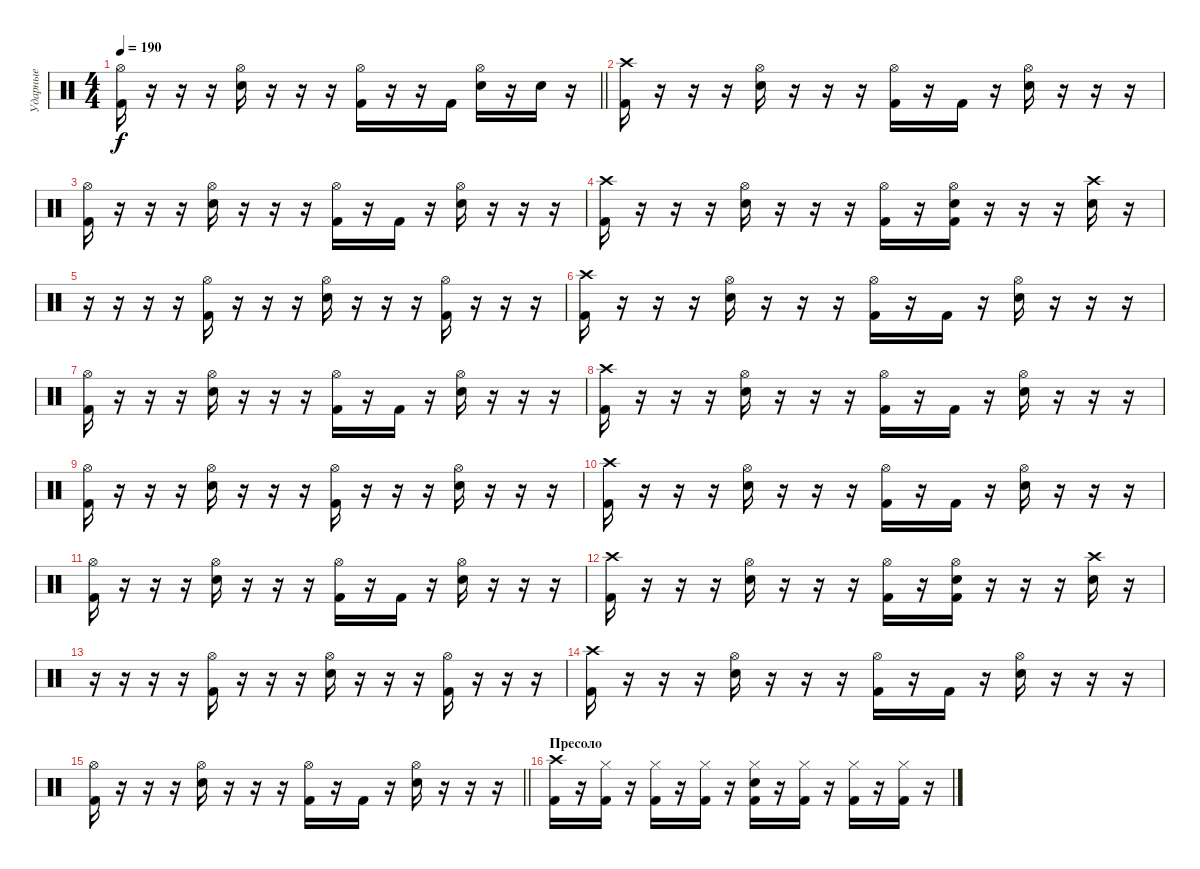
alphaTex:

\track ("Ударные" "Ударные") {instrument percussion}
\staff {score}
\articulation defaults
\ts (4 4)
\tempo 190
\clef neutral
\barLineRight lightlight
\ks c
("Hi-Hat (open)" "Kick (hit) 2").16{dy f} r.16 r.16 r.16 ("Hi-Hat (open)" "Electric Snare (hit)").16 r.16 r.16 r.16 ("Hi-Hat (open)" "Kick (hit) 2").16 r.16 r.16 "Kick (hit) 2".16 ("Hi-Hat (open)" "Electric Snare (hit)").16 r.16 "Snare (hit) 2".16 r.16 |
("Crash high (hit)" "Kick (hit) 2").16 r.16 r.16 r.16 ("Electric Snare (hit)" "Hi-Hat (open)").16 r.16 r.16 r.16 ("Kick (hit) 2" "Hi-Hat (open)").16 r.16 "Kick (hit) 2".16 r.16 ("Electric Snare (hit)" "Hi-Hat (open)").16 r.16 r.16 r.16 |
("Hi-Hat (open)" "Kick (hit) 2").16 r.16 r.16 r.16 ("Electric Snare (hit)" "Hi-Hat (open)").16 r.16 r.16 r.16 ("Kick (hit) 2" "Hi-Hat (open)").16 r.16 "Kick (hit) 2".16 r.16 ("Electric Snare (hit)" "Hi-Hat (open)").16 r.16 r.16 r.16 |
("Crash high (hit)" "Kick (hit) 2").16 r.16 r.16 r.16 ("Electric Snare (hit)" "Hi-Hat (open)").16 r.16 r.16 r.16 ("Kick (hit) 2" "Hi-Hat (open)").16 r.16 ("Kick (hit) 2" "Hi-Hat (open)" "Electric Snare (hit)").16 r.16 r.16 r.16 ("Crash high (hit)" "Electric Snare (hit)").16 r.16 |
r.16 r.16 r.16 r.16 ("Hi-Hat (open)" "Kick (hit) 2").16 r.16 r.16 r.16 ("Hi-Hat (open)" "Electric Snare (hit)").16 r.16 r.16 r.16 ("Hi-Hat (open)" "Kick (hit) 2").16 r.16 r.16 r.16 |
("Crash high (hit)" "Kick (hit) 2").16 r.16 r.16 r.16 ("Electric Snare (hit)" "Hi-Hat (open)").16 r.16 r.16 r.16 ("Kick (hit) 2" "Hi-Hat (open)").16 r.16 "Kick (hit) 2".16 r.16 ("Electric Snare (hit)" "Hi-Hat (open)").16 r.16 r.16 r.16 |
("Hi-Hat (open)" "Kick (hit) 2").16 r.16 r.16 r.16 ("Electric Snare (hit)" "Hi-Hat (open)").16 r.16 r.16 r.16 ("Kick (hit) 2" "Hi-Hat (open)").16 r.16 "Kick (hit) 2".16 r.16 ("Electric Snare (hit)" "Hi-Hat (open)").16 r.16 r.16 r.16 |
("Crash high (hit)" "Kick (hit) 2").16 r.16 r.16 r.16 ("Electric Snare (hit)" "Hi-Hat (open)").16 r.16 r.16 r.16 ("Kick (hit) 2" "Hi-Hat (open)").16 r.16 "Kick (hit) 2".16 r.16 ("Electric Snare (hit)" "Hi-Hat (open)").16 r.16 r.16 r.16 |
("Hi-Hat (open)" "Kick (hit) 2").16 r.16 r.16 r.16 ("Electric Snare (hit)" "Hi-Hat (open)").16 r.16 r.16 r.16 ("Kick (hit) 2" "Hi-Hat (open)").16 r.16 r.16 r.16 ("Electric Snare (hit)" "Hi-Hat (open)").16 r.16 r.16 r.16 |
("Crash high (hit)" "Kick (hit) 2").16 r.16 r.16 r.16 ("Electric Snare (hit)" "Hi-Hat (open)").16 r.16 r.16 r.16 ("Kick (hit) 2" "Hi-Hat (open)").16 r.16 "Kick (hit) 2".16 r.16 ("Electric Snare (hit)" "Hi-Hat (open)").16 r.16 r.16 r.16 |
("Hi-Hat (open)" "Kick (hit) 2").16 r.16 r.16 r.16 ("Electric Snare (hit)" "Hi-Hat (open)").16 r.16 r.16 r.16 ("Kick (hit) 2" "Hi-Hat (open)").16 r.16 "Kick (hit) 2".16 r.16 ("Electric Snare (hit)" "Hi-Hat (open)").16 r.16 r.16 r.16 |
("Crash high (hit)" "Kick (hit) 2").16 r.16 r.16 r.16 ("Electric Snare (hit)" "Hi-Hat (open)").16 r.16 r.16 r.16 ("Kick (hit) 2" "Hi-Hat (open)").16 r.16 ("Kick (hit) 2" "Hi-Hat (open)" "Electric Snare (hit)").16 r.16 r.16 r.16 ("Crash high (hit)" "Electric Snare (hit)").16 r.16 |
r.16 r.16 r.16 r.16 ("Hi-Hat (open)" "Kick (hit) 2").16 r.16 r.16 r.16 ("Hi-Hat (open)" "Electric Snare (hit)").16 r.16 r.16 r.16 ("Hi-Hat (open)" "Kick (hit) 2").16 r.16 r.16 r.16 |
("Crash high (hit)" "Kick (hit) 2").16 r.16 r.16 r.16 ("Electric Snare (hit)" "Hi-Hat (open)").16 r.16 r.16 r.16 ("Kick (hit) 2" "Hi-Hat (open)").16 r.16 "Kick (hit) 2".16 r.16 ("Electric Snare (hit)" "Hi-Hat (open)").16 r.16 r.16 r.16 |
\barLineRight lightlight
("Hi-Hat (open)" "Kick (hit) 2").16 r.16 r.16 r.16 ("Electric Snare (hit)" "Hi-Hat (open)").16 r.16 r.16 r.16 ("Kick (hit) 2" "Hi-Hat (open)").16 r.16 "Kick (hit) 2".16 r.16 ("Electric Snare (hit)" "Hi-Hat (open)").16 r.16 r.16 r.16 |
\section ("" "Пресоло")
("Crash high (hit)" "Kick (hit) 2").16 r.16 ("Kick (hit) 2" "Hi-Hat (closed)").16 r.16 ("Kick (hit) 2" "Hi-Hat (closed)").16 r.16 ("Kick (hit) 2" "Hi-Hat (closed)").16 r.16 ("Kick (hit) 2" "Electric Snare (hit)" "Hi-Hat (closed)").16 r.16 ("Kick (hit) 2" "Hi-Hat (closed)").16 r.16 ("Kick (hit) 2" "Hi-Hat (closed)").16 r.16 ("Kick (hit) 2" "Hi-Hat (closed)").16 r.16
